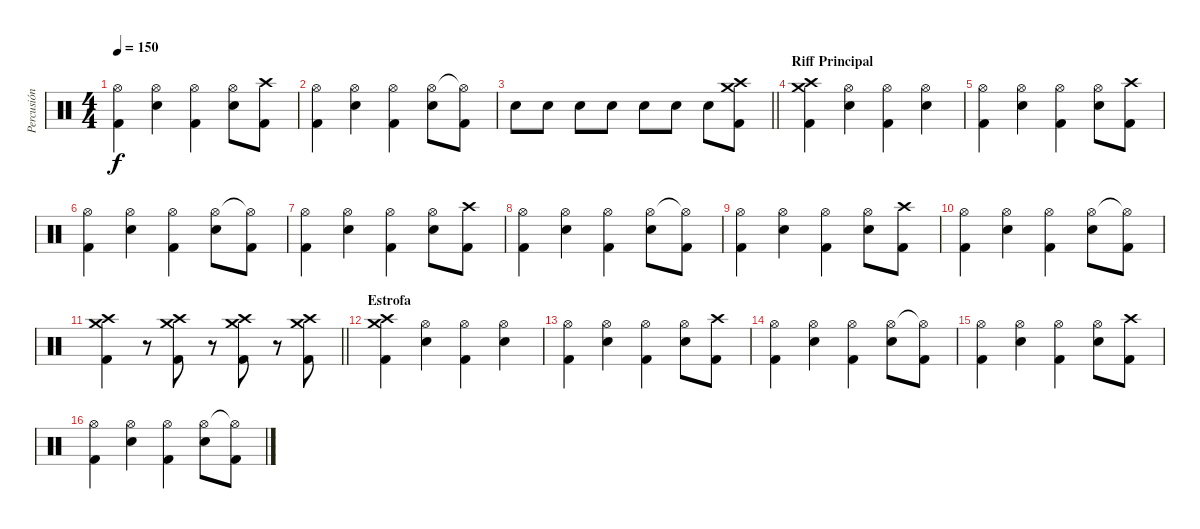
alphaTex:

\track ("Percusión" "Percusión") {instrument percussion}
\staff {score}
\articulation defaults
\ts (4 4)
\tempo 150
\clef neutral
\ks c
("Kick (hit) 2" "Hi-Hat (open)").4{dy f} ("Electric Snare (hit)" "Hi-Hat (open)").4 ("Kick (hit) 2" "Hi-Hat (open)").4 ("Electric Snare (hit)" "Hi-Hat (open)").8 ("Kick (hit) 2" "Crash high (hit)").8 |
("Kick (hit) 2" "Hi-Hat (open)").4 ("Electric Snare (hit)" "Hi-Hat (open)").4 ("Kick (hit) 2" "Hi-Hat (open)").4 ("Electric Snare (hit)" "Hi-Hat (open)").8 ("Kick (hit) 2" "Hi-Hat (open)"{t}).8 |
\barLineRight lightlight "Electric Snare (hit)".8 "Electric Snare (hit)".8 "Electric Snare (hit)".8 "Electric Snare (hit)".8 "Electric Snare (hit)".8 "Electric Snare (hit)".8 "Electric Snare (hit)".8
("Kick (hit) 2" "Crash high (hit)" "Crash medium (hit)").8 |
\section ("" "Riff Principal")
("Kick (hit) 2" "Crash high (hit)" "Crash medium (hit)").4 ("Electric Snare (hit)" "Hi-Hat (open)").4 ("Kick (hit) 2" "Hi-Hat (open)").4 ("Electric Snare (hit)" "Hi-Hat (open)").4 |
("Kick (hit) 2" "Hi-Hat (open)").4 ("Electric Snare (hit)" "Hi-Hat (open)").4 ("Kick (hit) 2" "Hi-Hat (open)").4 ("Electric Snare (hit)" "Hi-Hat (open)").8 ("Kick (hit) 2" "Crash high (hit)").8 |
("Kick (hit) 2" "Hi-Hat (open)").4 ("Electric Snare (hit)" "Hi-Hat (open)").4 ("Kick (hit) 2" "Hi-Hat (open)").4 ("Electric Snare (hit)" "Hi-Hat (open)").8 ("Kick (hit) 2" "Hi-Hat (open)"{t}).8 |
("Kick (hit) 2" "Hi-Hat (open)").4 ("Electric Snare (hit)" "Hi-Hat (open)").4 ("Kick (hit) 2" "Hi-Hat (open)").4 ("Electric Snare (hit)" "Hi-Hat (open)").8 ("Kick (hit) 2" "Crash high (hit)").8 |
("Kick (hit) 2" "Hi-Hat (open)").4 ("Electric Snare (hit)" "Hi-Hat (open)").4 ("Kick (hit) 2" "Hi-Hat (open)").4 ("Electric Snare (hit)" "Hi-Hat (open)").8 ("Kick (hit) 2" "Hi-Hat (open)"{t}).8 |
("Kick (hit) 2" "Hi-Hat (open)").4 ("Electric Snare (hit)" "Hi-Hat (open)").4 ("Kick (hit) 2" "Hi-Hat (open)").4 ("Electric Snare (hit)" "Hi-Hat (open)").8 ("Kick (hit) 2" "Crash high (hit)").8 |
("Kick (hit) 2" "Hi-Hat (open)").4 ("Electric Snare (hit)" "Hi-Hat (open)").4 ("Kick (hit) 2" "Hi-Hat (open)").4 ("Electric Snare (hit)" "Hi-Hat (open)").8 ("Kick (hit) 2" "Hi-Hat (open)"{t}).8 |
\barLineRight lightlight
("Kick (hit) 2" "Crash medium (hit)" "Crash high (hit)").4 r.8 ("Crash medium (hit)" "Kick (hit) 2" "Crash high (hit)").8 r.8 ("Crash medium (hit)" "Kick (hit) 2" "Crash high (hit)").8 r.8 ("Crash high (hit)" "Crash medium (hit)" "Kick (hit) 2").8 |
\section ("" "Estrofa")
("Kick (hit) 2" "Crash high (hit)" "Crash medium (hit)").4 ("Electric Snare (hit)" "Hi-Hat (open)").4 ("Kick (hit) 2" "Hi-Hat (open)").4 ("Electric Snare (hit)" "Hi-Hat (open)").4 |
("Kick (hit) 2" "Hi-Hat (open)").4 ("Electric Snare (hit)" "Hi-Hat (open)").4 ("Kick (hit) 2" "Hi-Hat (open)").4 ("Electric Snare (hit)" "Hi-Hat (open)").8 ("Kick (hit) 2" "Crash high (hit)").8 |
("Kick (hit) 2" "Hi-Hat (open)").4 ("Electric Snare (hit)" "Hi-Hat (open)").4 ("Kick (hit) 2" "Hi-Hat (open)").4 ("Electric Snare (hit)" "Hi-Hat (open)").8 ("Kick (hit) 2" "Hi-Hat (open)"{t}).8 |
("Kick (hit) 2" "Hi-Hat (open)").4 ("Electric Snare (hit)" "Hi-Hat (open)").4 ("Kick (hit) 2" "Hi-Hat (open)").4 ("Electric Snare (hit)" "Hi-Hat (open)").8 ("Kick (hit) 2" "Crash high (hit)").8 |
("Kick (hit) 2" "Hi-Hat (open)").4 ("Electric Snare (hit)" "Hi-Hat (open)").4 ("Kick (hit) 2" "Hi-Hat (open)").4 ("Electric Snare (hit)" "Hi-Hat (open)").8 ("Kick (hit) 2" "Hi-Hat (open)"{t}).8
